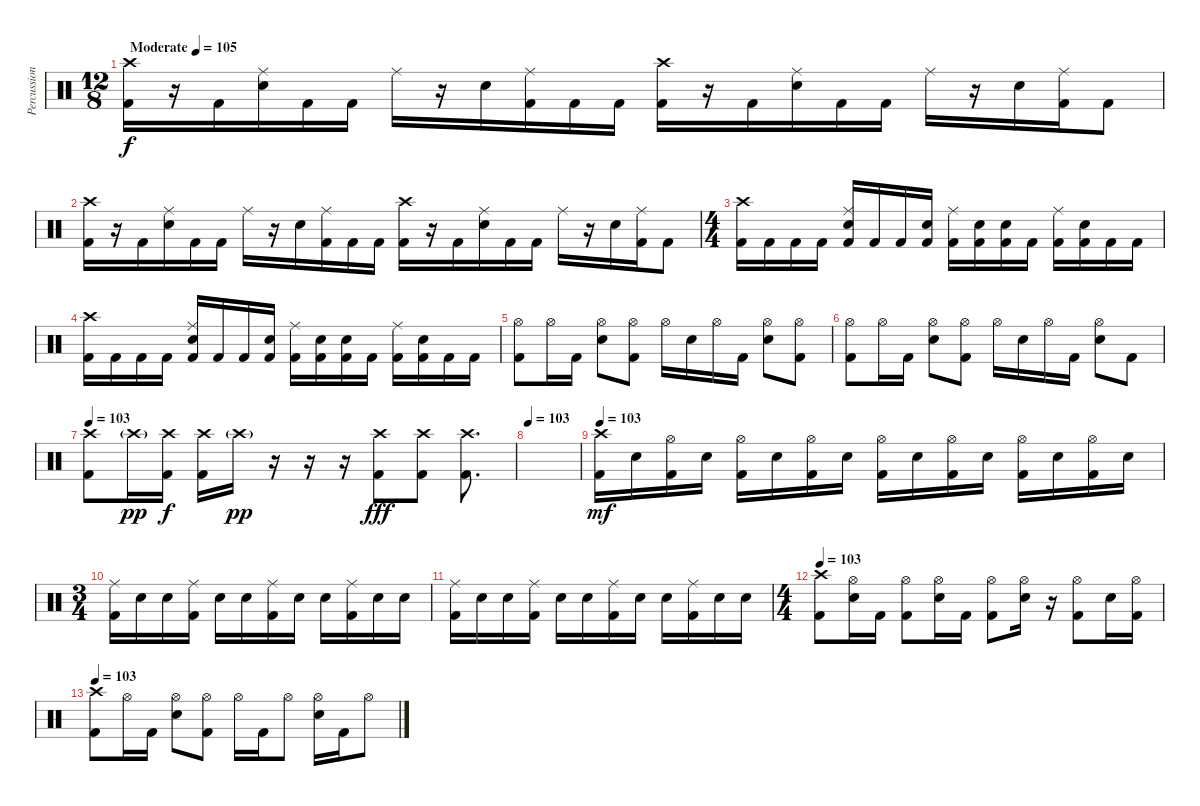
\track ("Percussion" "Percussion") {instrument percussion}
\staff {score}
\articulation defaults
\ts (12 8)
\tempo (105 "Moderate")
\clef neutral
\ks c
("Crash high (hit)" "Kick (hit) 2").16{dy f} r.16 "Kick (hit) 2".16 ("Ride (middle)" "Electric Snare (hit)").16 "Kick (hit) 2".16 "Kick (hit) 2".16 "Ride (middle)".16 r.16 "Electric Snare (hit)".16 ("Ride (middle)" "Kick (hit) 2").16 "Kick (hit) 2".16 "Kick (hit) 2".16 ("Crash high (hit)" "Kick (hit) 2").16 r.16 "Kick (hit) 2".16 ("Ride (middle)" "Electric Snare (hit)").16 "Kick (hit) 2".16 "Kick (hit) 2".16 "Ride (middle)".16 r.16 "Electric Snare (hit)".16 ("Ride (middle)" "Kick (hit) 2").16 "Kick (hit) 2".8 |
("Crash high (hit)" "Kick (hit) 2").16 r.16 "Kick (hit) 2".16 ("Ride (middle)" "Electric Snare (hit)").16 "Kick (hit) 2".16 "Kick (hit) 2".16 "Ride (middle)".16 r.16 "Electric Snare (hit)".16 ("Ride (middle)" "Kick (hit) 2").16 "Kick (hit) 2".16 "Kick (hit) 2".16 ("Crash high (hit)" "Kick (hit) 2").16 r.16 "Kick (hit) 2".16 ("Ride (middle)" "Electric Snare (hit)").16 "Kick (hit) 2".16 "Kick (hit) 2".16 "Ride (middle)".16 r.16 "Electric Snare (hit)".16 ("Ride (middle)" "Kick (hit) 2").16 "Kick (hit) 2".8 |
\ts (4 4)
("Crash high (hit)" "Kick (hit) 2").16 "Kick (hit) 2".16 "Kick (hit) 2".16 "Kick (hit) 2".16 ("Ride (middle)" "Electric Snare (hit)" "Kick (hit) 2").16 "Kick (hit) 2".16 "Kick (hit) 2".16 ("Electric Snare (hit)" "Kick (hit) 2").16 ("Ride (middle)" "Kick (hit) 2").16 ("Electric Snare (hit)" "Kick (hit) 2").16 ("Electric Snare (hit)" "Kick (hit) 2").16 "Kick (hit) 2".16 ("Ride (middle)" "Kick (hit) 2").16 ("Electric Snare (hit)" "Kick (hit) 2").16 "Kick (hit) 2".16 "Kick (hit) 2".16 |
("Crash high (hit)" "Kick (hit) 2").16 "Kick (hit) 2".16 "Kick (hit) 2".16 "Kick (hit) 2".16 ("Ride (middle)" "Electric Snare (hit)" "Kick (hit) 2").16 "Kick (hit) 2".16 "Kick (hit) 2".16 ("Electric Snare (hit)" "Kick (hit) 2").16 ("Ride (middle)" "Kick (hit) 2").16 ("Electric Snare (hit)" "Kick (hit) 2").16 ("Electric Snare (hit)" "Kick (hit) 2").16 "Kick (hit) 2".16 ("Ride (middle)" "Kick (hit) 2").16 ("Electric Snare (hit)" "Kick (hit) 2").16 "Kick (hit) 2".16 "Kick (hit) 2".16 |
("Hi-Hat (open)" "Kick (hit) 2").8 "Hi-Hat (open)".16 "Kick (hit) 2".16 ("Hi-Hat (open)" "Electric Snare (hit)").8 ("Hi-Hat (open)" "Kick (hit) 2").8 "Hi-Hat (open)".16 "Electric Snare (hit)".16 "Hi-Hat (open)".16 "Kick (hit) 2".16 ("Hi-Hat (open)" "Electric Snare (hit)").8 ("Hi-Hat (open)" "Kick (hit) 2").8 |
("Hi-Hat (open)" "Kick (hit) 2").8 "Hi-Hat (open)".16 "Kick (hit) 2".16 ("Hi-Hat (open)" "Electric Snare (hit)").8 ("Hi-Hat (open)" "Kick (hit) 2").8 "Hi-Hat (open)".16 "Electric Snare (hit)".16 "Hi-Hat (open)".16 "Kick (hit) 2".16 ("Hi-Hat (open)" "Electric Snare (hit)").8 "Kick (hit) 2".8 |
\tempo 103
("Crash high (hit)" "Kick (hit) 2").8 "Crash high (hit)"{g}.16{dy pp} ("Crash high (hit)" "Kick (hit) 2").16{dy f} ("Crash high (hit)" "Kick (hit) 2").16 "Crash high (hit)"{g}.16{dy pp} r.16 r.16 r.16 ("Crash high (hit)" "Kick (hit) 2").8{dy fff} ("Crash high (hit)" "Kick (hit) 2").8 ("Crash high (hit)" "Kick (hit) 2").8{d} |
\tempo 103
|
\tempo 103
("Crash high (hit)" "Kick (hit) 2").16{dy mf} "Electric Snare (hit)".16 ("Hi-Hat (open)" "Kick (hit) 2").16 "Electric Snare (hit)".16 ("Hi-Hat (open)" "Kick (hit) 2").16 "Electric Snare (hit)".16 ("Hi-Hat (open)" "Kick (hit) 2").16 "Electric Snare (hit)".16 ("Hi-Hat (open)" "Kick (hit) 2").16 "Electric Snare (hit)".16 ("Hi-Hat (open)" "Kick (hit) 2").16 "Electric Snare (hit)".16 ("Hi-Hat (open)" "Kick (hit) 2").16 "Electric Snare (hit)".16 ("Hi-Hat (open)" "Kick (hit) 2").16 "Electric Snare (hit)".16 |
\ts (3 4)
("Ride (middle)" "Kick (hit) 2").16 "Electric Snare (hit)".16 "Electric Snare (hit)".16 ("Ride (middle)" "Kick (hit) 2").16 "Electric Snare (hit)".16 "Electric Snare (hit)".16 ("Ride (middle)" "Kick (hit) 2").16 "Electric Snare (hit)".16 "Electric Snare (hit)".16 ("Ride (middle)" "Kick (hit) 2").16 "Electric Snare (hit)".16 "Electric Snare (hit)".16 |
("Ride (middle)" "Kick (hit) 2").16 "Electric Snare (hit)".16 "Electric Snare (hit)".16 ("Ride (middle)" "Kick (hit) 2").16 "Electric Snare (hit)".16 "Electric Snare (hit)".16 ("Ride (middle)" "Kick (hit) 2").16 "Electric Snare (hit)".16 "Electric Snare (hit)".16 ("Ride (middle)" "Kick (hit) 2").16 "Electric Snare (hit)".16 "Electric Snare (hit)".16 |
\ts (4 4)
\tempo 103
("Crash high (hit)" "Kick (hit) 2").8 ("Hi-Hat (open)" "Electric Snare (hit)").16 "Kick (hit) 2".16 ("Hi-Hat (open)" "Kick (hit) 2").8 ("Hi-Hat (open)" "Electric Snare (hit)").16 "Kick (hit) 2".16 ("Hi-Hat (open)" "Kick (hit) 2").8 ("Hi-Hat (open)" "Electric Snare (hit)").16 r.16 ("Hi-Hat (open)" "Kick (hit) 2").8 "Electric Snare (hit)".16 ("Hi-Hat (open)" "Kick (hit) 2").16 |
\tempo 103
("Crash high (hit)" "Kick (hit) 2").8 "Hi-Hat (open)".16 "Kick (hit) 2".16 ("Hi-Hat (open)" "Electric Snare (hit)").8 ("Hi-Hat (open)" "Kick (hit) 2").8 "Hi-Hat (open)".16 "Kick (hit) 2".16 "Hi-Hat (open)".8 ("Hi-Hat (open)" "Electric Snare (hit)").16 "Kick (hit) 2".16 "Hi-Hat (open)".8
